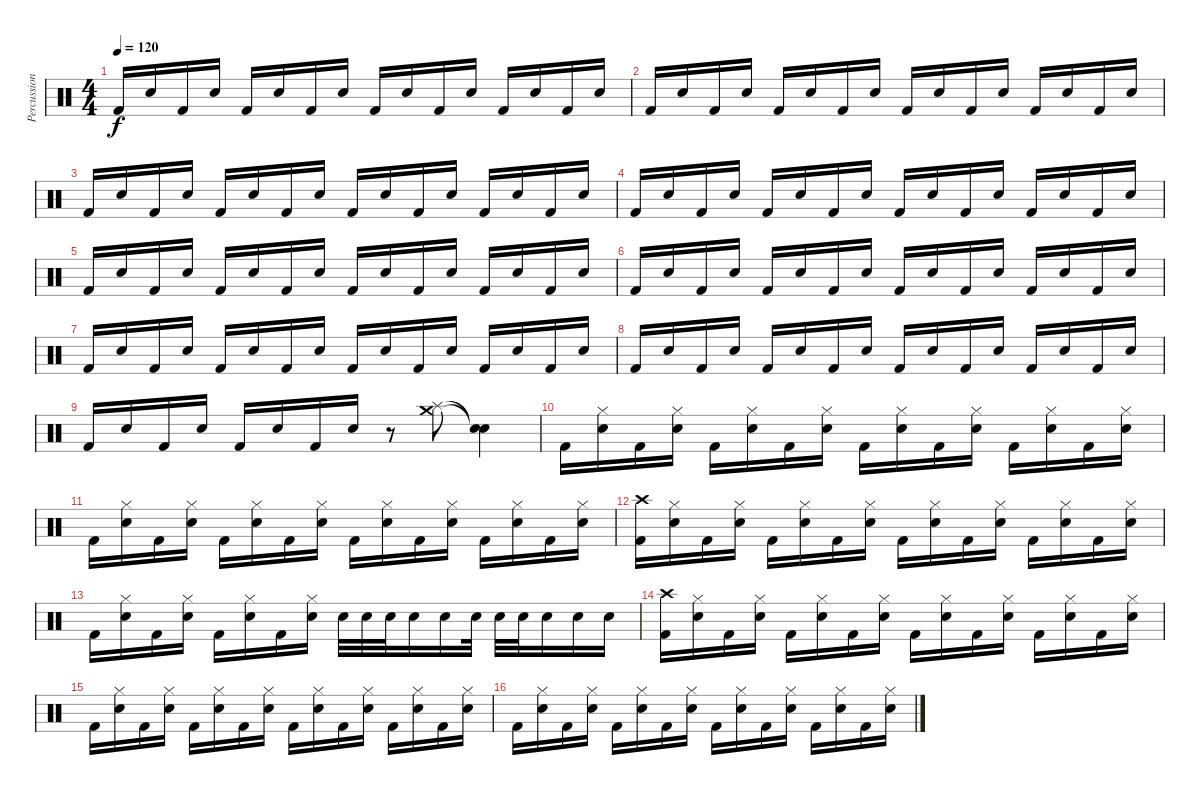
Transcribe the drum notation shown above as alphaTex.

\track ("Percussion" "Percussion") {instrument percussion}
\staff {score}
\articulation defaults
\ts (4 4)
\tempo 120
\clef neutral
\ks c "Kick (hit) 2".16{dy f} "Snare (hit) 2".16 "Kick (hit) 2".16 "Snare (hit) 2".16 "Kick (hit) 2".16 "Snare (hit) 2".16 "Kick (hit) 2".16 "Snare (hit) 2".16 "Kick (hit) 2".16 "Snare (hit) 2".16 "Kick (hit) 2".16 "Snare (hit) 2".16 "Kick (hit) 2".16 "Snare (hit) 2".16 "Kick (hit) 2".16 "Snare (hit) 2".16
|
"Kick (hit) 2".16 "Snare (hit) 2".16 "Kick (hit) 2".16 "Snare (hit) 2".16 "Kick (hit) 2".16 "Snare (hit) 2".16 "Kick (hit) 2".16 "Snare (hit) 2".16 "Kick (hit) 2".16 "Snare (hit) 2".16 "Kick (hit) 2".16 "Snare (hit) 2".16 "Kick (hit) 2".16 "Snare (hit) 2".16 "Kick (hit) 2".16 "Snare (hit) 2".16 |
"Kick (hit) 2".16 "Snare (hit) 2".16 "Kick (hit) 2".16 "Snare (hit) 2".16 "Kick (hit) 2".16 "Snare (hit) 2".16 "Kick (hit) 2".16 "Snare (hit) 2".16 "Kick (hit) 2".16 "Snare (hit) 2".16 "Kick (hit) 2".16 "Snare (hit) 2".16 "Kick (hit) 2".16 "Snare (hit) 2".16 "Kick (hit) 2".16 "Snare (hit) 2".16 |
"Kick (hit) 2".16 "Snare (hit) 2".16 "Kick (hit) 2".16 "Snare (hit) 2".16 "Kick (hit) 2".16 "Snare (hit) 2".16 "Kick (hit) 2".16 "Snare (hit) 2".16 "Kick (hit) 2".16 "Snare (hit) 2".16 "Kick (hit) 2".16 "Snare (hit) 2".16 "Kick (hit) 2".16 "Snare (hit) 2".16 "Kick (hit) 2".16 "Snare (hit) 2".16 |
"Kick (hit) 2".16 "Snare (hit) 2".16 "Kick (hit) 2".16 "Snare (hit) 2".16 "Kick (hit) 2".16 "Snare (hit) 2".16 "Kick (hit) 2".16 "Snare (hit) 2".16 "Kick (hit) 2".16 "Snare (hit) 2".16 "Kick (hit) 2".16 "Snare (hit) 2".16 "Kick (hit) 2".16 "Snare (hit) 2".16 "Kick (hit) 2".16 "Snare (hit) 2".16 |
"Kick (hit) 2".16 "Snare (hit) 2".16 "Kick (hit) 2".16 "Snare (hit) 2".16 "Kick (hit) 2".16 "Snare (hit) 2".16 "Kick (hit) 2".16 "Snare (hit) 2".16 "Kick (hit) 2".16 "Snare (hit) 2".16 "Kick (hit) 2".16 "Snare (hit) 2".16 "Kick (hit) 2".16 "Snare (hit) 2".16 "Kick (hit) 2".16 "Snare (hit) 2".16 |
"Kick (hit) 2".16 "Snare (hit) 2".16 "Kick (hit) 2".16 "Snare (hit) 2".16 "Kick (hit) 2".16 "Snare (hit) 2".16 "Kick (hit) 2".16 "Snare (hit) 2".16 "Kick (hit) 2".16 "Snare (hit) 2".16 "Kick (hit) 2".16 "Snare (hit) 2".16 "Kick (hit) 2".16 "Snare (hit) 2".16 "Kick (hit) 2".16 "Snare (hit) 2".16 |
"Kick (hit) 2".16 "Snare (hit) 2".16 "Kick (hit) 2".16 "Snare (hit) 2".16 "Kick (hit) 2".16 "Snare (hit) 2".16 "Kick (hit) 2".16 "Snare (hit) 2".16 "Kick (hit) 2".16 "Snare (hit) 2".16 "Kick (hit) 2".16 "Snare (hit) 2".16 "Kick (hit) 2".16 "Snare (hit) 2".16 "Kick (hit) 2".16 "Snare (hit) 2".16 |
"Kick (hit) 2".16 "Snare (hit) 2".16 "Kick (hit) 2".16 "Snare (hit) 2".16 "Kick (hit) 2".16 "Snare (hit) 2".16 "Kick (hit) 2".16 "Snare (hit) 2".16 r.8 ("Splash (hit)" "Crash medium (hit)").8 ("Snare (hit)"{t} "Snare (hit)"{t}).4 |
"Kick (hit) 2".16 ("Hi-Hat (closed)" "Snare (hit) 2").16 "Kick (hit) 2".16 ("Hi-Hat (closed)" "Snare (hit) 2").16 "Kick (hit) 2".16 ("Hi-Hat (closed)" "Snare (hit) 2").16 "Kick (hit) 2".16 ("Hi-Hat (closed)" "Snare (hit) 2").16 "Kick (hit) 2".16 ("Hi-Hat (closed)" "Snare (hit) 2").16 "Kick (hit) 2".16 ("Hi-Hat (closed)" "Snare (hit) 2").16 "Kick (hit) 2".16 ("Hi-Hat (closed)" "Snare (hit) 2").16 "Kick (hit) 2".16 ("Hi-Hat (closed)" "Snare (hit) 2").16 |
"Kick (hit) 2".16 ("Hi-Hat (closed)" "Snare (hit) 2").16 "Kick (hit) 2".16 ("Hi-Hat (closed)" "Snare (hit) 2").16 "Kick (hit) 2".16 ("Hi-Hat (closed)" "Snare (hit) 2").16 "Kick (hit) 2".16 ("Hi-Hat (closed)" "Snare (hit) 2").16 "Kick (hit) 2".16 ("Hi-Hat (closed)" "Snare (hit) 2").16 "Kick (hit) 2".16 ("Hi-Hat (closed)" "Snare (hit) 2").16 "Kick (hit) 2".16 ("Hi-Hat (closed)" "Snare (hit) 2").16 "Kick (hit) 2".16 ("Hi-Hat (closed)" "Snare (hit) 2").16 |
("Crash high (hit)" "Kick (hit) 2").16 ("Hi-Hat (closed)" "Snare (hit) 2").16 "Kick (hit) 2".16 ("Hi-Hat (closed)" "Snare (hit) 2").16 "Kick (hit) 2".16 ("Hi-Hat (closed)" "Snare (hit) 2").16 "Kick (hit) 2".16 ("Hi-Hat (closed)" "Snare (hit) 2").16 "Kick (hit) 2".16 ("Hi-Hat (closed)" "Snare (hit) 2").16 "Kick (hit) 2".16 ("Hi-Hat (closed)" "Snare (hit) 2").16 "Kick (hit) 2".16 ("Hi-Hat (closed)" "Snare (hit) 2").16 "Kick (hit) 2".16 ("Hi-Hat (closed)" "Snare (hit) 2").16 |
"Kick (hit) 2".16 ("Hi-Hat (closed)" "Snare (hit) 2").16 "Kick (hit) 2".16 ("Hi-Hat (closed)" "Snare (hit) 2").16 "Kick (hit) 2".16 ("Hi-Hat (closed)" "Snare (hit) 2").16 "Kick (hit) 2".16 ("Hi-Hat (closed)" "Snare (hit) 2").16 "Snare (hit) 2".32 "Snare (hit) 2".32 "Snare (hit) 2".32 "Snare (hit) 2".16 "Snare (hit) 2".16 "Snare (hit) 2".32 "Snare (hit) 2".32 "Snare (hit) 2".32 "Snare (hit) 2".16 "Snare (hit) 2".16 "Snare (hit) 2".16 |
("Crash high (hit)" "Kick (hit) 2").16 ("Hi-Hat (closed)" "Snare (hit) 2").16 "Kick (hit) 2".16 ("Hi-Hat (closed)" "Snare (hit) 2").16 "Kick (hit) 2".16 ("Hi-Hat (closed)" "Snare (hit) 2").16 "Kick (hit) 2".16 ("Hi-Hat (closed)" "Snare (hit) 2").16 "Kick (hit) 2".16 ("Hi-Hat (closed)" "Snare (hit) 2").16 "Kick (hit) 2".16 ("Hi-Hat (closed)" "Snare (hit) 2").16 "Kick (hit) 2".16 ("Hi-Hat (closed)" "Snare (hit) 2").16 "Kick (hit) 2".16 ("Hi-Hat (closed)" "Snare (hit) 2").16 |
"Kick (hit) 2".16 ("Hi-Hat (closed)" "Snare (hit) 2").16 "Kick (hit) 2".16 ("Hi-Hat (closed)" "Snare (hit) 2").16 "Kick (hit) 2".16 ("Hi-Hat (closed)" "Snare (hit) 2").16 "Kick (hit) 2".16 ("Hi-Hat (closed)" "Snare (hit) 2").16 "Kick (hit) 2".16 ("Hi-Hat (closed)" "Snare (hit) 2").16 "Kick (hit) 2".16 ("Hi-Hat (closed)" "Snare (hit) 2").16 "Kick (hit) 2".16 ("Hi-Hat (closed)" "Snare (hit) 2").16 "Kick (hit) 2".16 ("Hi-Hat (closed)" "Snare (hit) 2").16 |
"Kick (hit) 2".16 ("Hi-Hat (closed)" "Snare (hit) 2").16 "Kick (hit) 2".16 ("Hi-Hat (closed)" "Snare (hit) 2").16 "Kick (hit) 2".16 ("Hi-Hat (closed)" "Snare (hit) 2").16 "Kick (hit) 2".16 ("Hi-Hat (closed)" "Snare (hit) 2").16 "Kick (hit) 2".16 ("Hi-Hat (closed)" "Snare (hit) 2").16 "Kick (hit) 2".16 ("Hi-Hat (closed)" "Snare (hit) 2").16 "Kick (hit) 2".16 ("Hi-Hat (closed)" "Snare (hit) 2").16 "Kick (hit) 2".16 ("Hi-Hat (closed)" "Snare (hit) 2").16
